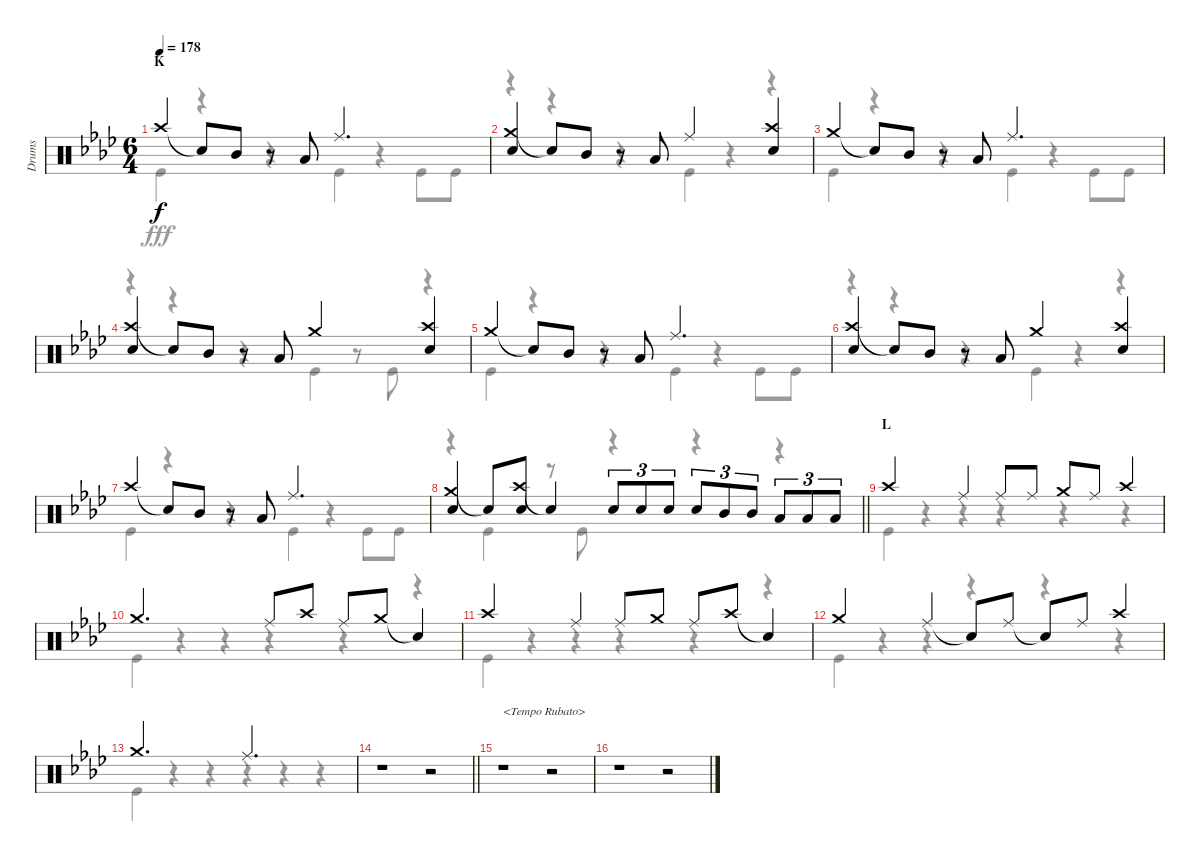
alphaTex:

\track ("Drums" "Drums") {instrument percussion}
\staff {score}
\articulation defaults
\voice
\ts (6 4)
\section ("" "K")
\tempo 178
\clef neutral
\ks ab "Crash high (hit)".4{dy f} "Snare (hit)"{t}.8 "Mid Tom (hit)".8
r.8 "Low Tom (hit)".8 "Ride (middle)".2{d} |
("Crash medium (hit)" "Snare (hit) 2").4 "Snare (hit)"{t}.8 "Mid Tom (hit)".8 r.8 "Low Tom (hit)".8 "Ride (middle)".2 ("Crash high (hit)" "Snare (hit) 2").4 |
"Crash medium (hit)".4 "Snare (hit)"{t}.8 "Mid Tom (hit)".8 r.8 "Low Tom (hit)".8 "Ride (middle)".2{d} |
("Crash high (hit)" "Snare (hit) 2").4 "Snare (hit)"{t}.8 "Mid Tom (hit)".8 r.8 "Low Tom (hit)".8 "Crash medium (hit)".2 ("Crash high (hit)" "Snare (hit) 2").4 |
"Crash medium (hit)".4 "Snare (hit)"{t}.8 "Mid Tom (hit)".8 r.8 "Low Tom (hit)".8 "Ride (middle)".2{d} |
("Crash high (hit)" "Snare (hit) 2").4 "Snare (hit)"{t}.8 "Mid Tom (hit)".8 r.8 "Low Tom (hit)".8 "Crash medium (hit)".2 ("Crash high (hit)" "Snare (hit) 2").4 |
"Crash high (hit)".4 "Snare (hit)"{t}.8 "Mid Tom (hit)".8 r.8 "Low Tom (hit)".8 "Ride (middle)".2{d} |
\barLineRight lightlight
("Crash medium (hit)" "Snare (hit) 2").4 "Snare (hit)"{t}.8 ("Crash high (hit)" "Snare (hit) 2").8 "Snare (hit)"{t}.4 "Snare (hit) 2".8{tu (3 2)} "Snare (hit) 2".8{tu (3 2)} "Snare (hit) 2".8{tu (3 2)} "Snare (hit) 2".8{tu (3 2)} "Mid Tom (hit)".8{tu (3 2)} "Mid Tom (hit)".8{tu (3 2)} "Low Tom (hit)".8{tu (3 2)} "Low Tom (hit)".8{tu (3 2)} "Low Tom (hit)".8{tu (3 2)} |
\section ("" "L")
"Crash high (hit)".2 "Ride (middle)".4 "Ride (middle)".8 "Ride (middle)".8 "Crash medium (hit)".8 "Ride (middle)".8 "Crash high (hit)".4 |
"Crash medium (hit)".2{d} "Ride (middle)".8 "Crash high (hit)".8 "Ride (middle)".8 "Crash medium (hit)".8 "Snare (hit)"{t}.4 |
"Crash high (hit)".2 "Ride (middle)".4 "Ride (middle)".8 "Crash medium (hit)".8 "Ride (middle)".8 "Crash high (hit)".8 "Snare (hit)"{t}.4 |
"Crash medium (hit)".2 "Ride (middle)".4 "Snare (hit)"{t}.8 "Ride (middle)".8 "Snare (hit)"{t}.8 "Ride (middle)".8 "Crash high (hit)".4 |
"Crash medium (hit)".2{d} "Ride (middle)".2{d} |
\barLineRight lightlight
r.1 r.2 |
r.1{txt "<Tempo Rubato>"} r.2 |
r.1 r.2
\voice
\clef neutral
\ottava regular
\simile none
\ks ab "Kick (hit)".4{dy fff}
r.4 r.4 "Kick (hit)".4 r.4 "Kick (hit)".8 "Kick (hit)".8 |
r.4 r.4 r.4 "Kick (hit)".4 r.4 r.4 |
"Kick (hit)".4 r.4 r.4 "Kick (hit)".4 r.4 "Kick (hit)".8 "Kick (hit)".8 |
r.4 r.4 r.4 "Kick (hit)".4 r.8 "Kick (hit)".8 r.4 |
"Kick (hit)".4 r.4 r.4 "Kick (hit)".4 r.4 "Kick (hit)".8 "Kick (hit)".8 |
r.4 r.4 r.4 "Kick (hit)".4 r.4 r.4 |
"Kick (hit)".4 r.4 r.4 "Kick (hit)".4 r.4 "Kick (hit)".8 "Kick (hit)".8 |
\barLineRight lightlight
r.4 "Kick (hit)".4 r.8 "Kick (hit)".8 r.4 r.4 r.4 |
"Kick (hit)".4 r.4 r.4 r.4 r.4 r.4 |
"Kick (hit)".4 r.4 r.4 r.4 r.4 r.4 |
"Kick (hit)".4 r.4 r.4 r.4 r.4 r.4 |
"Kick (hit)".4 r.4 r.4 r.4 r.4 r.4 |
"Kick (hit)".4 r.4 r.4 r.4 r.4 r.4 |
\barLineRight lightlight
r.1 r.2 |
r.1 r.2 |
r.1 r.2
